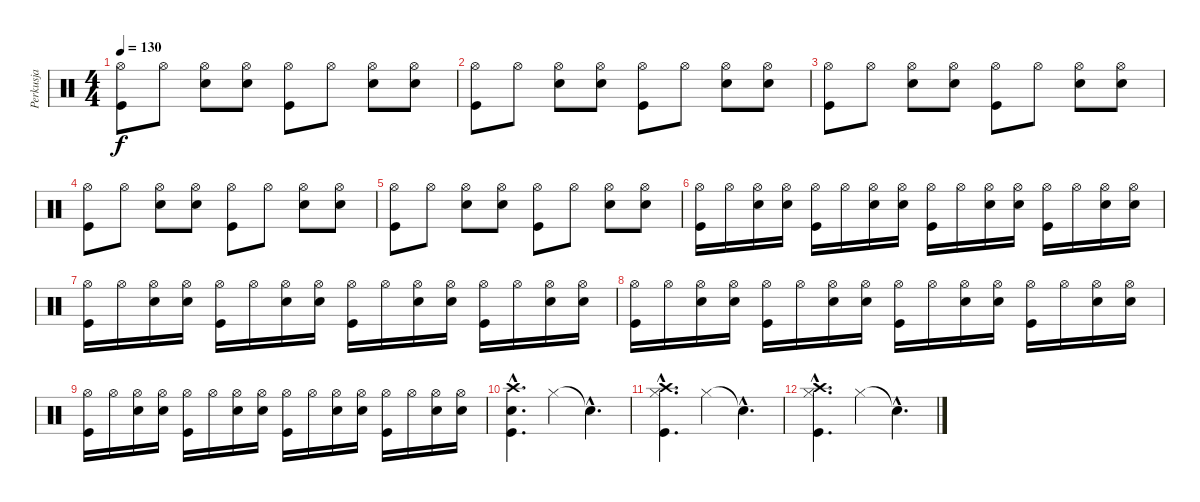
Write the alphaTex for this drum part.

\track ("Perkusja" "Perkusja") {instrument percussion}
\staff {score}
\articulation defaults
\ts (4 4)
\tempo 130
\clef neutral
\ks c
("Hi-Hat (open)" "Kick (hit)").8{dy f} "Hi-Hat (open)".8 ("Hi-Hat (open)" "Electric Snare (hit)").8 ("Hi-Hat (open)" "Electric Snare (hit)").8 ("Hi-Hat (open)" "Kick (hit)").8 "Hi-Hat (open)".8 ("Hi-Hat (open)" "Electric Snare (hit)").8 ("Hi-Hat (open)" "Electric Snare (hit)").8 |
("Hi-Hat (open)" "Kick (hit)").8 "Hi-Hat (open)".8 ("Hi-Hat (open)" "Electric Snare (hit)").8 ("Hi-Hat (open)" "Electric Snare (hit)").8 ("Hi-Hat (open)" "Kick (hit)").8 "Hi-Hat (open)".8 ("Hi-Hat (open)" "Electric Snare (hit)").8 ("Hi-Hat (open)" "Electric Snare (hit)").8 |
("Hi-Hat (open)" "Kick (hit)").8 "Hi-Hat (open)".8 ("Hi-Hat (open)" "Electric Snare (hit)").8 ("Hi-Hat (open)" "Electric Snare (hit)").8 ("Hi-Hat (open)" "Kick (hit)").8 "Hi-Hat (open)".8 ("Hi-Hat (open)" "Electric Snare (hit)").8 ("Hi-Hat (open)" "Electric Snare (hit)").8 |
("Hi-Hat (open)" "Kick (hit)").8 "Hi-Hat (open)".8 ("Hi-Hat (open)" "Electric Snare (hit)").8 ("Hi-Hat (open)" "Electric Snare (hit)").8 ("Hi-Hat (open)" "Kick (hit)").8 "Hi-Hat (open)".8 ("Hi-Hat (open)" "Electric Snare (hit)").8 ("Hi-Hat (open)" "Electric Snare (hit)").8 |
("Hi-Hat (open)" "Kick (hit)").8 "Hi-Hat (open)".8 ("Hi-Hat (open)" "Electric Snare (hit)").8 ("Hi-Hat (open)" "Electric Snare (hit)").8 ("Hi-Hat (open)" "Kick (hit)").8 "Hi-Hat (open)".8 ("Hi-Hat (open)" "Electric Snare (hit)").8 ("Hi-Hat (open)" "Electric Snare (hit)").8 |
("Hi-Hat (open)" "Kick (hit)").16 "Hi-Hat (open)".16 ("Hi-Hat (open)" "Electric Snare (hit)").16 ("Hi-Hat (open)" "Electric Snare (hit)").16 ("Hi-Hat (open)" "Kick (hit)").16 "Hi-Hat (open)".16 ("Hi-Hat (open)" "Electric Snare (hit)").16 ("Hi-Hat (open)" "Electric Snare (hit)").16 ("Hi-Hat (open)" "Kick (hit)").16 "Hi-Hat (open)".16 ("Hi-Hat (open)" "Electric Snare (hit)").16 ("Hi-Hat (open)" "Electric Snare (hit)").16 ("Hi-Hat (open)" "Kick (hit)").16 "Hi-Hat (open)".16 ("Hi-Hat (open)" "Electric Snare (hit)").16 ("Hi-Hat (open)" "Electric Snare (hit)").16 |
("Hi-Hat (open)" "Kick (hit)").16 "Hi-Hat (open)".16 ("Hi-Hat (open)" "Electric Snare (hit)").16 ("Hi-Hat (open)" "Electric Snare (hit)").16 ("Hi-Hat (open)" "Kick (hit)").16 "Hi-Hat (open)".16 ("Hi-Hat (open)" "Electric Snare (hit)").16 ("Hi-Hat (open)" "Electric Snare (hit)").16 ("Hi-Hat (open)" "Kick (hit)").16 "Hi-Hat (open)".16 ("Hi-Hat (open)" "Electric Snare (hit)").16 ("Hi-Hat (open)" "Electric Snare (hit)").16 ("Hi-Hat (open)" "Kick (hit)").16 "Hi-Hat (open)".16 ("Hi-Hat (open)" "Electric Snare (hit)").16 ("Hi-Hat (open)" "Electric Snare (hit)").16 |
("Hi-Hat (open)" "Kick (hit)").16 "Hi-Hat (open)".16 ("Hi-Hat (open)" "Electric Snare (hit)").16 ("Hi-Hat (open)" "Electric Snare (hit)").16 ("Hi-Hat (open)" "Kick (hit)").16 "Hi-Hat (open)".16 ("Hi-Hat (open)" "Electric Snare (hit)").16 ("Hi-Hat (open)" "Electric Snare (hit)").16 ("Hi-Hat (open)" "Kick (hit)").16 "Hi-Hat (open)".16 ("Hi-Hat (open)" "Electric Snare (hit)").16 ("Hi-Hat (open)" "Electric Snare (hit)").16 ("Hi-Hat (open)" "Kick (hit)").16 "Hi-Hat (open)".16 ("Hi-Hat (open)" "Electric Snare (hit)").16 ("Hi-Hat (open)" "Electric Snare (hit)").16 |
("Hi-Hat (open)" "Kick (hit)").16 "Hi-Hat (open)".16 ("Hi-Hat (open)" "Electric Snare (hit)").16 ("Hi-Hat (open)" "Electric Snare (hit)").16 ("Hi-Hat (open)" "Kick (hit)").16 "Hi-Hat (open)".16 ("Hi-Hat (open)" "Electric Snare (hit)").16 ("Hi-Hat (open)" "Electric Snare (hit)").16 ("Hi-Hat (open)" "Kick (hit)").16 "Hi-Hat (open)".16 ("Hi-Hat (open)" "Electric Snare (hit)").16 ("Hi-Hat (open)" "Electric Snare (hit)").16 ("Hi-Hat (open)" "Kick (hit)").16 "Hi-Hat (open)".16 ("Hi-Hat (open)" "Electric Snare (hit)").16 ("Hi-Hat (open)" "Electric Snare (hit)").16 |
("Crash high (hit)"{hac} "Electric Snare (hit)"{hac} "Kick (hit)"{hac}).4{d} "Hi-Hat (closed)".4 "Snare (hit)"{hac t}.4{d} |
("Hi-Hat (closed)"{hac} "Crash high (hit)"{hac} "Kick (hit)"{hac}).4{d} "Hi-Hat (closed)".4 "Snare (hit)"{hac t}.4{d} |
("Hi-Hat (closed)"{hac} "Crash high (hit)"{hac} "Kick (hit)"{hac}).4{d} "Hi-Hat (closed)".4 "Snare (hit)"{hac t}.4{d}
